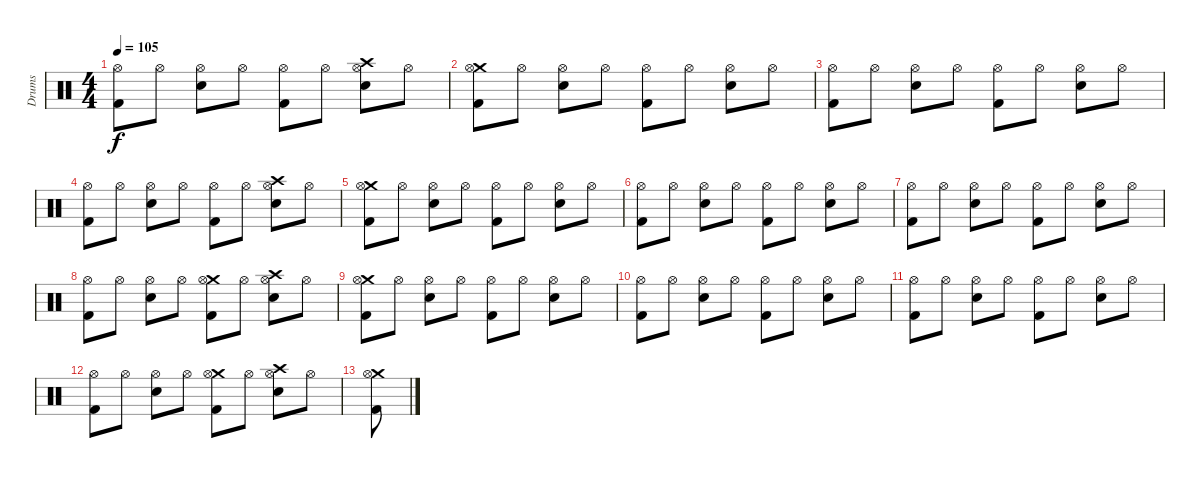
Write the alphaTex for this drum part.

\track ("Drums" "Drums") {instrument percussion}
\staff {score}
\articulation defaults
\ts (4 4)
\tempo 105
\clef neutral
\ks c
("Hi-Hat (open)" "Kick (hit) 2").8{dy f} "Hi-Hat (open)".8 ("Hi-Hat (open)" "Electric Snare (hit)").8 "Hi-Hat (open)".8 ("Hi-Hat (open)" "Kick (hit) 2").8 "Hi-Hat (open)".8 ("Crash high (hit)" "Hi-Hat (open)" "Electric Snare (hit)").8 "Hi-Hat (open)".8 |
("Crash medium (hit)" "Hi-Hat (open)" "Kick (hit) 2").8 "Hi-Hat (open)".8 ("Hi-Hat (open)" "Electric Snare (hit)").8 "Hi-Hat (open)".8 ("Hi-Hat (open)" "Kick (hit) 2").8 "Hi-Hat (open)".8 ("Hi-Hat (open)" "Electric Snare (hit)").8 "Hi-Hat (open)".8 |
("Hi-Hat (open)" "Kick (hit) 2").8 "Hi-Hat (open)".8 ("Hi-Hat (open)" "Electric Snare (hit)").8 "Hi-Hat (open)".8 ("Hi-Hat (open)" "Kick (hit) 2").8 "Hi-Hat (open)".8 ("Hi-Hat (open)" "Electric Snare (hit)").8 "Hi-Hat (open)".8 |
("Hi-Hat (open)" "Kick (hit) 2").8 "Hi-Hat (open)".8 ("Hi-Hat (open)" "Electric Snare (hit)").8 "Hi-Hat (open)".8 ("Hi-Hat (open)" "Kick (hit) 2").8 "Hi-Hat (open)".8 ("Crash high (hit)" "Hi-Hat (open)" "Electric Snare (hit)").8 "Hi-Hat (open)".8 |
("Crash medium (hit)" "Hi-Hat (open)" "Kick (hit) 2").8 "Hi-Hat (open)".8 ("Hi-Hat (open)" "Electric Snare (hit)").8 "Hi-Hat (open)".8 ("Hi-Hat (open)" "Kick (hit) 2").8 "Hi-Hat (open)".8 ("Hi-Hat (open)" "Electric Snare (hit)").8 "Hi-Hat (open)".8 |
("Hi-Hat (open)" "Kick (hit) 2").8 "Hi-Hat (open)".8 ("Hi-Hat (open)" "Electric Snare (hit)").8 "Hi-Hat (open)".8 ("Hi-Hat (open)" "Kick (hit) 2").8 "Hi-Hat (open)".8 ("Hi-Hat (open)" "Electric Snare (hit)").8 "Hi-Hat (open)".8 |
("Hi-Hat (open)" "Kick (hit) 2").8 "Hi-Hat (open)".8 ("Hi-Hat (open)" "Electric Snare (hit)").8 "Hi-Hat (open)".8 ("Hi-Hat (open)" "Kick (hit) 2").8 "Hi-Hat (open)".8 ("Hi-Hat (open)" "Electric Snare (hit)").8 "Hi-Hat (open)".8 |
("Hi-Hat (open)" "Kick (hit) 2").8 "Hi-Hat (open)".8 ("Hi-Hat (open)" "Electric Snare (hit)").8 "Hi-Hat (open)".8 ("Crash medium (hit)" "Hi-Hat (open)" "Kick (hit) 2").8 "Hi-Hat (open)".8 ("Crash high (hit)" "Hi-Hat (open)" "Electric Snare (hit)").8 "Hi-Hat (open)".8 |
("Crash medium (hit)" "Hi-Hat (open)" "Kick (hit) 2").8 "Hi-Hat (open)".8 ("Hi-Hat (open)" "Electric Snare (hit)").8 "Hi-Hat (open)".8 ("Hi-Hat (open)" "Kick (hit) 2").8 "Hi-Hat (open)".8 ("Hi-Hat (open)" "Electric Snare (hit)").8 "Hi-Hat (open)".8 |
("Hi-Hat (open)" "Kick (hit) 2").8 "Hi-Hat (open)".8 ("Hi-Hat (open)" "Electric Snare (hit)").8 "Hi-Hat (open)".8 ("Hi-Hat (open)" "Kick (hit) 2").8 "Hi-Hat (open)".8 ("Hi-Hat (open)" "Electric Snare (hit)").8 "Hi-Hat (open)".8 |
("Hi-Hat (open)" "Kick (hit) 2").8 "Hi-Hat (open)".8 ("Hi-Hat (open)" "Electric Snare (hit)").8 "Hi-Hat (open)".8 ("Hi-Hat (open)" "Kick (hit) 2").8 "Hi-Hat (open)".8 ("Hi-Hat (open)" "Electric Snare (hit)").8 "Hi-Hat (open)".8 |
("Hi-Hat (open)" "Kick (hit) 2").8 "Hi-Hat (open)".8 ("Hi-Hat (open)" "Electric Snare (hit)").8 "Hi-Hat (open)".8 ("Crash medium (hit)" "Hi-Hat (open)" "Kick (hit) 2").8 "Hi-Hat (open)".8 ("Crash high (hit)" "Hi-Hat (open)" "Electric Snare (hit)").8 "Hi-Hat (open)".8 |
("Crash medium (hit)" "Hi-Hat (open)" "Kick (hit) 2").8
